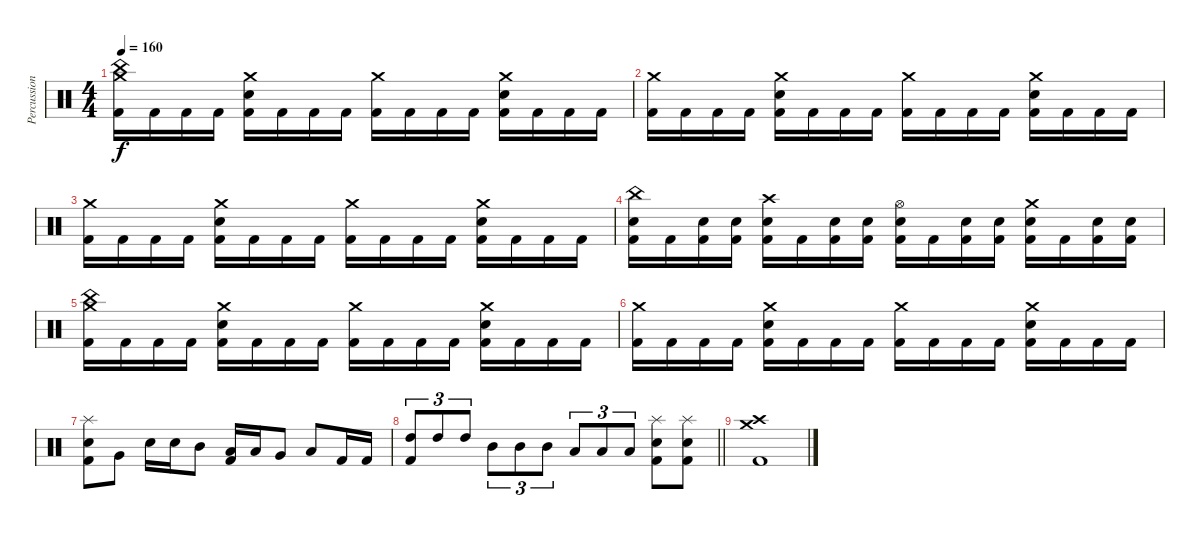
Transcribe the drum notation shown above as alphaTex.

\track ("Percussions" "Percussion") {instrument percussion}
\staff {score}
\articulation defaults
\ts (4 4)
\tempo 160
\clef neutral
\ks c
("Crash medium (hit)" "China (hit)" "Kick (hit) 2").16{dy f} "Kick (hit) 2".16 "Kick (hit) 2".16 "Kick (hit) 2".16 ("Crash medium (hit)" "Electric Snare (hit)" "Kick (hit) 2").16 "Kick (hit) 2".16 "Kick (hit) 2".16 "Kick (hit) 2".16 ("Crash medium (hit)" "Kick (hit) 2").16 "Kick (hit) 2".16 "Kick (hit) 2".16 "Kick (hit) 2".16 ("Crash medium (hit)" "Electric Snare (hit)" "Kick (hit) 2").16 "Kick (hit) 2".16 "Kick (hit) 2".16 "Kick (hit) 2".16 |
("Crash medium (hit)" "Kick (hit) 2").16 "Kick (hit) 2".16 "Kick (hit) 2".16 "Kick (hit) 2".16 ("Crash medium (hit)" "Electric Snare (hit)" "Kick (hit) 2").16 "Kick (hit) 2".16 "Kick (hit) 2".16 "Kick (hit) 2".16 ("Crash medium (hit)" "Kick (hit) 2").16 "Kick (hit) 2".16 "Kick (hit) 2".16 "Kick (hit) 2".16 ("Crash medium (hit)" "Electric Snare (hit)" "Kick (hit) 2").16 "Kick (hit) 2".16 "Kick (hit) 2".16 "Kick (hit) 2".16 |
("Crash medium (hit)" "Kick (hit) 2").16 "Kick (hit) 2".16 "Kick (hit) 2".16 "Kick (hit) 2".16 ("Crash medium (hit)" "Electric Snare (hit)" "Kick (hit) 2").16 "Kick (hit) 2".16 "Kick (hit) 2".16 "Kick (hit) 2".16 ("Crash medium (hit)" "Kick (hit) 2").16 "Kick (hit) 2".16 "Kick (hit) 2".16 "Kick (hit) 2".16 ("Crash medium (hit)" "Electric Snare (hit)" "Kick (hit) 2").16 "Kick (hit) 2".16 "Kick (hit) 2".16 "Kick (hit) 2".16 |
("China (hit)" "Electric Snare (hit)" "Kick (hit) 2").16 "Kick (hit) 2".16 ("Electric Snare (hit)" "Kick (hit) 2").16 ("Electric Snare (hit)" "Kick (hit) 2").16 ("Crash high (hit)" "Electric Snare (hit)" "Kick (hit) 2").16 "Kick (hit) 2".16 ("Electric Snare (hit)" "Kick (hit) 2").16 ("Electric Snare (hit)" "Kick (hit) 2").16 ("Hi-Hat (open)" "Electric Snare (hit)" "Kick (hit) 2").16 "Kick (hit) 2".16 ("Electric Snare (hit)" "Kick (hit) 2").16 ("Electric Snare (hit)" "Kick (hit) 2").16 ("Crash medium (hit)" "Electric Snare (hit)" "Kick (hit) 2").16 "Kick (hit) 2".16 ("Electric Snare (hit)" "Kick (hit) 2").16 ("Electric Snare (hit)" "Kick (hit) 2").16 |
("Crash medium (hit)" "China (hit)" "Kick (hit) 2").16 "Kick (hit) 2".16 "Kick (hit) 2".16 "Kick (hit) 2".16 ("Crash medium (hit)" "Electric Snare (hit)" "Kick (hit) 2").16 "Kick (hit) 2".16 "Kick (hit) 2".16 "Kick (hit) 2".16 ("Crash medium (hit)" "Kick (hit) 2").16 "Kick (hit) 2".16 "Kick (hit) 2".16 "Kick (hit) 2".16 ("Crash medium (hit)" "Electric Snare (hit)" "Kick (hit) 2").16 "Kick (hit) 2".16 "Kick (hit) 2".16 "Kick (hit) 2".16 |
("Crash medium (hit)" "Kick (hit) 2").16 "Kick (hit) 2".16 "Kick (hit) 2".16 "Kick (hit) 2".16 ("Crash medium (hit)" "Electric Snare (hit)" "Kick (hit) 2").16 "Kick (hit) 2".16 "Kick (hit) 2".16 "Kick (hit) 2".16 ("Crash medium (hit)" "Kick (hit) 2").16 "Kick (hit) 2".16 "Kick (hit) 2".16 "Kick (hit) 2".16 ("Crash medium (hit)" "Electric Snare (hit)" "Kick (hit) 2").16 "Kick (hit) 2".16 "Kick (hit) 2".16 "Kick (hit) 2".16 |
("Splash (hit)" "Electric Snare (hit)" "Kick (hit) 2").8 "Very Low Tom (hit)".8 "Electric Snare (hit)".16 "Electric Snare (hit)".16 "Mid Tom (hit)".8 ("Low Tom (hit)" "Kick (hit) 2").16 "Low Tom (hit)".16 "Very Low Tom (hit)".8 "Low Floor Tom (hit)".8 "Kick (hit) 2".16 "Kick (hit) 2".16 |
\barLineRight lightlight
("High Tom (hit)" "Kick (hit) 2").8{tu (3 2)} "High Tom (hit)".8{tu (3 2)} "High Tom (hit)".8{tu (3 2)} "Mid Tom (hit)".8{tu (3 2)} "Mid Tom (hit)".8{tu (3 2)} "Mid Tom (hit)".8{tu (3 2)} "Low Tom (hit)".8{tu (3 2)} "Low Tom (hit)".8{tu (3 2)} "Low Tom (hit)".8{tu (3 2)} ("Splash (hit)" "Electric Snare (hit)" "Kick (hit) 2").8 ("Splash (hit)" "Electric Snare (hit)" "Kick (hit) 2").8 |
("Crash medium (hit)" "Crash high (hit)" "Kick (hit) 2").1
